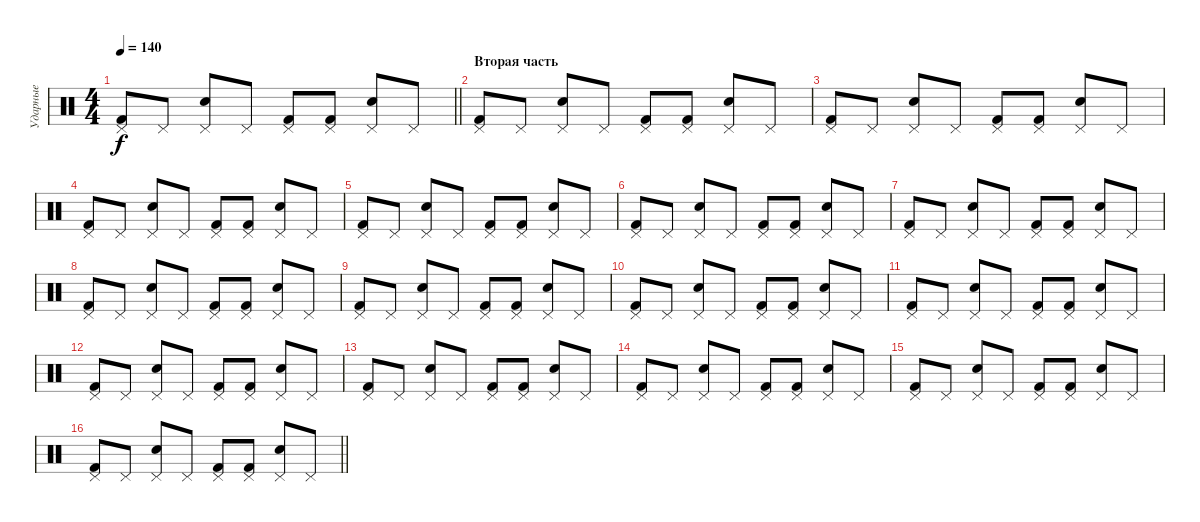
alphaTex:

\track ("Ударные" "Ударные") {instrument percussion}
\staff {score}
\articulation defaults
\ts (4 4)
\tempo 140
\clef neutral
\barLineRight lightlight
\ks c
("Pedal Hi-Hat (hit)" "Kick (hit) 2").8{dy f} "Pedal Hi-Hat (hit)".8 ("Pedal Hi-Hat (hit)" "Electric Snare (hit)").8 "Pedal Hi-Hat (hit)".8 ("Pedal Hi-Hat (hit)" "Kick (hit) 2").8 ("Pedal Hi-Hat (hit)" "Kick (hit) 2").8 ("Pedal Hi-Hat (hit)" "Electric Snare (hit)").8 "Pedal Hi-Hat (hit)".8 |
\section ("" "Вторая часть")
("Pedal Hi-Hat (hit)" "Kick (hit) 2").8 "Pedal Hi-Hat (hit)".8 ("Pedal Hi-Hat (hit)" "Electric Snare (hit)").8 "Pedal Hi-Hat (hit)".8 ("Pedal Hi-Hat (hit)" "Kick (hit) 2").8 ("Pedal Hi-Hat (hit)" "Kick (hit) 2").8 ("Pedal Hi-Hat (hit)" "Electric Snare (hit)").8 "Pedal Hi-Hat (hit)".8 |
("Pedal Hi-Hat (hit)" "Kick (hit) 2").8 "Pedal Hi-Hat (hit)".8 ("Pedal Hi-Hat (hit)" "Electric Snare (hit)").8 "Pedal Hi-Hat (hit)".8 ("Pedal Hi-Hat (hit)" "Kick (hit) 2").8 ("Pedal Hi-Hat (hit)" "Kick (hit) 2").8 ("Pedal Hi-Hat (hit)" "Electric Snare (hit)").8 "Pedal Hi-Hat (hit)".8 |
("Pedal Hi-Hat (hit)" "Kick (hit) 2").8 "Pedal Hi-Hat (hit)".8 ("Pedal Hi-Hat (hit)" "Electric Snare (hit)").8 "Pedal Hi-Hat (hit)".8 ("Pedal Hi-Hat (hit)" "Kick (hit) 2").8 ("Pedal Hi-Hat (hit)" "Kick (hit) 2").8 ("Pedal Hi-Hat (hit)" "Electric Snare (hit)").8 "Pedal Hi-Hat (hit)".8 |
("Pedal Hi-Hat (hit)" "Kick (hit) 2").8 "Pedal Hi-Hat (hit)".8 ("Pedal Hi-Hat (hit)" "Electric Snare (hit)").8 "Pedal Hi-Hat (hit)".8 ("Pedal Hi-Hat (hit)" "Kick (hit) 2").8 ("Pedal Hi-Hat (hit)" "Kick (hit) 2").8 ("Pedal Hi-Hat (hit)" "Electric Snare (hit)").8 "Pedal Hi-Hat (hit)".8 |
("Pedal Hi-Hat (hit)" "Kick (hit) 2").8 "Pedal Hi-Hat (hit)".8 ("Pedal Hi-Hat (hit)" "Electric Snare (hit)").8 "Pedal Hi-Hat (hit)".8 ("Pedal Hi-Hat (hit)" "Kick (hit) 2").8 ("Pedal Hi-Hat (hit)" "Kick (hit) 2").8 ("Pedal Hi-Hat (hit)" "Electric Snare (hit)").8 "Pedal Hi-Hat (hit)".8 |
("Pedal Hi-Hat (hit)" "Kick (hit) 2").8 "Pedal Hi-Hat (hit)".8 ("Pedal Hi-Hat (hit)" "Electric Snare (hit)").8 "Pedal Hi-Hat (hit)".8 ("Pedal Hi-Hat (hit)" "Kick (hit) 2").8 ("Pedal Hi-Hat (hit)" "Kick (hit) 2").8 ("Pedal Hi-Hat (hit)" "Electric Snare (hit)").8 "Pedal Hi-Hat (hit)".8 |
("Pedal Hi-Hat (hit)" "Kick (hit) 2").8 "Pedal Hi-Hat (hit)".8 ("Pedal Hi-Hat (hit)" "Electric Snare (hit)").8 "Pedal Hi-Hat (hit)".8 ("Pedal Hi-Hat (hit)" "Kick (hit) 2").8 ("Pedal Hi-Hat (hit)" "Kick (hit) 2").8 ("Pedal Hi-Hat (hit)" "Electric Snare (hit)").8 "Pedal Hi-Hat (hit)".8 |
("Pedal Hi-Hat (hit)" "Kick (hit) 2").8 "Pedal Hi-Hat (hit)".8 ("Pedal Hi-Hat (hit)" "Electric Snare (hit)").8 "Pedal Hi-Hat (hit)".8 ("Pedal Hi-Hat (hit)" "Kick (hit) 2").8 ("Pedal Hi-Hat (hit)" "Kick (hit) 2").8 ("Pedal Hi-Hat (hit)" "Electric Snare (hit)").8 "Pedal Hi-Hat (hit)".8 |
("Pedal Hi-Hat (hit)" "Kick (hit) 2").8 "Pedal Hi-Hat (hit)".8 ("Pedal Hi-Hat (hit)" "Electric Snare (hit)").8 "Pedal Hi-Hat (hit)".8 ("Pedal Hi-Hat (hit)" "Kick (hit) 2").8 ("Pedal Hi-Hat (hit)" "Kick (hit) 2").8 ("Pedal Hi-Hat (hit)" "Electric Snare (hit)").8 "Pedal Hi-Hat (hit)".8 |
("Pedal Hi-Hat (hit)" "Kick (hit) 2").8 "Pedal Hi-Hat (hit)".8 ("Pedal Hi-Hat (hit)" "Electric Snare (hit)").8 "Pedal Hi-Hat (hit)".8 ("Pedal Hi-Hat (hit)" "Kick (hit) 2").8 ("Pedal Hi-Hat (hit)" "Kick (hit) 2").8 ("Pedal Hi-Hat (hit)" "Electric Snare (hit)").8 "Pedal Hi-Hat (hit)".8 |
("Pedal Hi-Hat (hit)" "Kick (hit) 2").8 "Pedal Hi-Hat (hit)".8 ("Pedal Hi-Hat (hit)" "Electric Snare (hit)").8 "Pedal Hi-Hat (hit)".8 ("Pedal Hi-Hat (hit)" "Kick (hit) 2").8 ("Pedal Hi-Hat (hit)" "Kick (hit) 2").8 ("Pedal Hi-Hat (hit)" "Electric Snare (hit)").8 "Pedal Hi-Hat (hit)".8 |
("Pedal Hi-Hat (hit)" "Kick (hit) 2").8 "Pedal Hi-Hat (hit)".8 ("Pedal Hi-Hat (hit)" "Electric Snare (hit)").8 "Pedal Hi-Hat (hit)".8 ("Pedal Hi-Hat (hit)" "Kick (hit) 2").8 ("Pedal Hi-Hat (hit)" "Kick (hit) 2").8 ("Pedal Hi-Hat (hit)" "Electric Snare (hit)").8 "Pedal Hi-Hat (hit)".8 |
("Pedal Hi-Hat (hit)" "Kick (hit) 2").8 "Pedal Hi-Hat (hit)".8 ("Pedal Hi-Hat (hit)" "Electric Snare (hit)").8 "Pedal Hi-Hat (hit)".8 ("Pedal Hi-Hat (hit)" "Kick (hit) 2").8 ("Pedal Hi-Hat (hit)" "Kick (hit) 2").8 ("Pedal Hi-Hat (hit)" "Electric Snare (hit)").8 "Pedal Hi-Hat (hit)".8 |
("Pedal Hi-Hat (hit)" "Kick (hit) 2").8 "Pedal Hi-Hat (hit)".8 ("Pedal Hi-Hat (hit)" "Electric Snare (hit)").8 "Pedal Hi-Hat (hit)".8 ("Pedal Hi-Hat (hit)" "Kick (hit) 2").8 ("Pedal Hi-Hat (hit)" "Kick (hit) 2").8 ("Pedal Hi-Hat (hit)" "Electric Snare (hit)").8 "Pedal Hi-Hat (hit)".8 |
\barLineRight lightlight
("Pedal Hi-Hat (hit)" "Kick (hit) 2").8 "Pedal Hi-Hat (hit)".8 ("Pedal Hi-Hat (hit)" "Electric Snare (hit)").8 "Pedal Hi-Hat (hit)".8 ("Pedal Hi-Hat (hit)" "Kick (hit) 2").8 ("Pedal Hi-Hat (hit)" "Kick (hit) 2").8 ("Pedal Hi-Hat (hit)" "Electric Snare (hit)").8 "Pedal Hi-Hat (hit)".8
